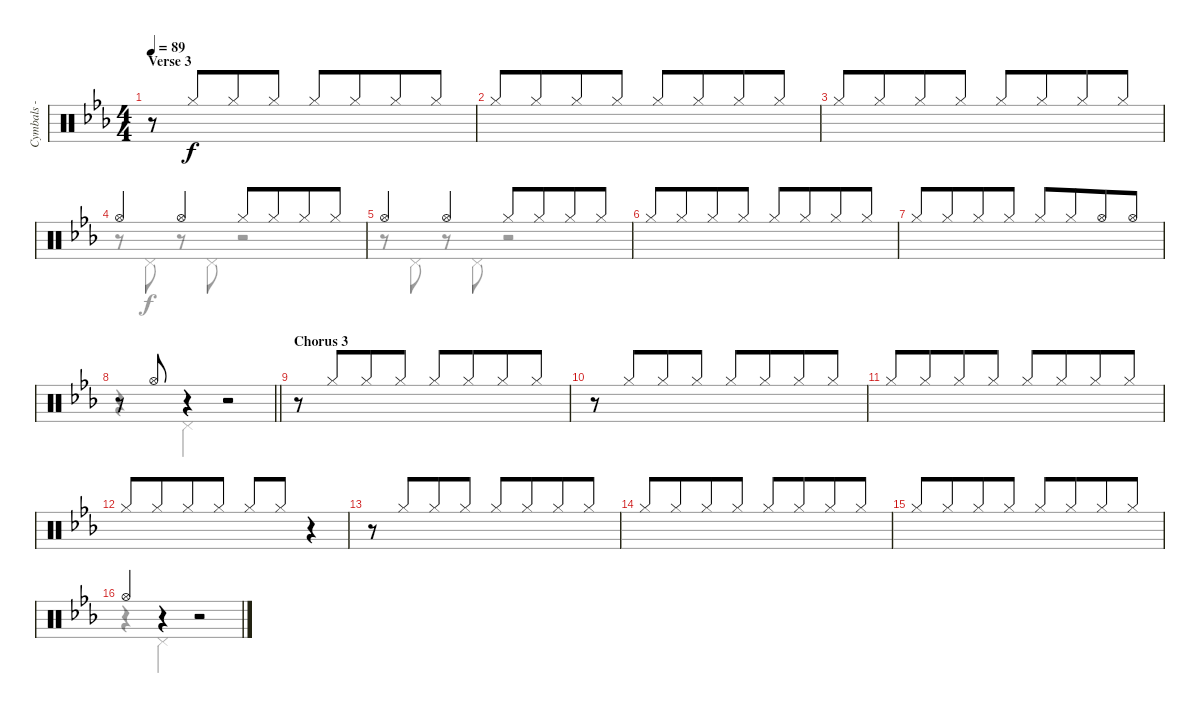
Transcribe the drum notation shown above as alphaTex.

\track ("Cymbals - hi-hat" "Cymbals - ") {instrument percussion}
\staff {score}
\articulation defaults
\voice
\ts (4 4)
\section ("" "Verse 3")
\tempo 89
\clef neutral
\ks eb
r.8{dy f} "Hi-Hat (closed)".8{beam Up beam merge} "Hi-Hat (closed)".8{beam Up} "Hi-Hat (closed)".8{beam Up} "Hi-Hat (closed)".8{beam Up} "Hi-Hat (closed)".8{beam Up beam merge} "Hi-Hat (closed)".8{beam Up} "Hi-Hat (closed)".8{beam Up} |
"Hi-Hat (closed)".8{beam Up} "Hi-Hat (closed)".8{beam Up beam merge} "Hi-Hat (closed)".8{beam Up} "Hi-Hat (closed)".8{beam Up} "Hi-Hat (closed)".8{beam Up} "Hi-Hat (closed)".8{beam Up beam merge} "Hi-Hat (closed)".8{beam Up} "Hi-Hat (closed)".8{beam Up} |
"Hi-Hat (closed)".8{beam Up} "Hi-Hat (closed)".8{beam Up beam merge} "Hi-Hat (closed)".8{beam Up} "Hi-Hat (closed)".8{beam Up} "Hi-Hat (closed)".8{beam Up} "Hi-Hat (closed)".8{beam Up beam merge} "Hi-Hat (closed)".8{beam Up} "Hi-Hat (closed)".8{beam Up} |
"Hi-Hat (open)".4{beam merge} "Hi-Hat (open)".4 "Hi-Hat (closed)".8 "Hi-Hat (closed)".8{beam merge} "Hi-Hat (closed)".8 "Hi-Hat (closed)".8 |
"Hi-Hat (open)".4{beam merge} "Hi-Hat (open)".4 "Hi-Hat (closed)".8 "Hi-Hat (closed)".8{beam merge} "Hi-Hat (closed)".8 "Hi-Hat (closed)".8 |
"Hi-Hat (closed)".8{beam Up} "Hi-Hat (closed)".8{beam Up beam merge} "Hi-Hat (closed)".8{beam Up} "Hi-Hat (closed)".8{beam Up} "Hi-Hat (closed)".8{beam Up} "Hi-Hat (closed)".8{beam Up beam merge} "Hi-Hat (closed)".8{beam Up} "Hi-Hat (closed)".8{beam Up} |
"Hi-Hat (closed)".8{beam Up} "Hi-Hat (closed)".8{beam Up beam merge} "Hi-Hat (closed)".8{beam Up} "Hi-Hat (closed)".8{beam Up} "Hi-Hat (closed)".8{beam Up} "Hi-Hat (closed)".8{beam Up beam merge} "Hi-Hat (open)".8{beam Up} "Hi-Hat (open)".8{beam Up} |
\barLineRight lightlight
r.8 "Hi-Hat (open)".8 r.4 r.2 |
\section ("" "Chorus 3")
r.8 "Hi-Hat (closed)".8{beam Up beam merge} "Hi-Hat (closed)".8{beam Up} "Hi-Hat (closed)".8{beam Up} "Hi-Hat (closed)".8{beam Up} "Hi-Hat (closed)".8{beam Up beam merge} "Hi-Hat (closed)".8{beam Up} "Hi-Hat (closed)".8{beam Up} |
r.8 "Hi-Hat (closed)".8{beam Up beam merge} "Hi-Hat (closed)".8{beam Up} "Hi-Hat (closed)".8{beam Up} "Hi-Hat (closed)".8{beam Up} "Hi-Hat (closed)".8{beam Up beam merge} "Hi-Hat (closed)".8{beam Up} "Hi-Hat (closed)".8{beam Up} |
"Hi-Hat (closed)".8{beam Up} "Hi-Hat (closed)".8{beam Up beam merge} "Hi-Hat (closed)".8{beam Up} "Hi-Hat (closed)".8{beam Up} "Hi-Hat (closed)".8{beam Up} "Hi-Hat (closed)".8{beam Up beam merge} "Hi-Hat (closed)".8{beam Up} "Hi-Hat (closed)".8{beam Up} |
"Hi-Hat (closed)".8{beam Up} "Hi-Hat (closed)".8{beam Up beam merge} "Hi-Hat (closed)".8{beam Up} "Hi-Hat (closed)".8{beam Up} "Hi-Hat (closed)".8{beam Up} "Hi-Hat (closed)".8{beam Up} r.4 |
r.8 "Hi-Hat (closed)".8{beam Up beam merge} "Hi-Hat (closed)".8{beam Up} "Hi-Hat (closed)".8{beam Up} "Hi-Hat (closed)".8{beam Up} "Hi-Hat (closed)".8{beam Up beam merge} "Hi-Hat (closed)".8{beam Up} "Hi-Hat (closed)".8{beam Up} |
"Hi-Hat (closed)".8{beam Up} "Hi-Hat (closed)".8{beam Up beam merge} "Hi-Hat (closed)".8{beam Up} "Hi-Hat (closed)".8{beam Up} "Hi-Hat (closed)".8{beam Up} "Hi-Hat (closed)".8{beam Up beam merge} "Hi-Hat (closed)".8{beam Up} "Hi-Hat (closed)".8{beam Up} |
"Hi-Hat (closed)".8{beam Up} "Hi-Hat (closed)".8{beam Up beam merge} "Hi-Hat (closed)".8{beam Up} "Hi-Hat (closed)".8{beam Up} "Hi-Hat (closed)".8{beam Up} "Hi-Hat (closed)".8{beam Up beam merge} "Hi-Hat (closed)".8{beam Up} "Hi-Hat (closed)".8{beam Up} |
"Hi-Hat (open)".4 r.4 r.2
\voice
\clef neutral
\ottava regular
\simile none
\ks eb
|
|
|
r.8 "Pedal Hi-Hat (hit)".8{dy f} r.8 "Pedal Hi-Hat (hit)".8 r.2 |
r.8 "Pedal Hi-Hat (hit)".8 r.8 "Pedal Hi-Hat (hit)".8 r.2 |
|
|
\barLineRight lightlight
r.4 "Pedal Hi-Hat (hit)".4 r.2 |
|
|
|
|
|
|
|
r.4 "Pedal Hi-Hat (hit)".4 r.2
